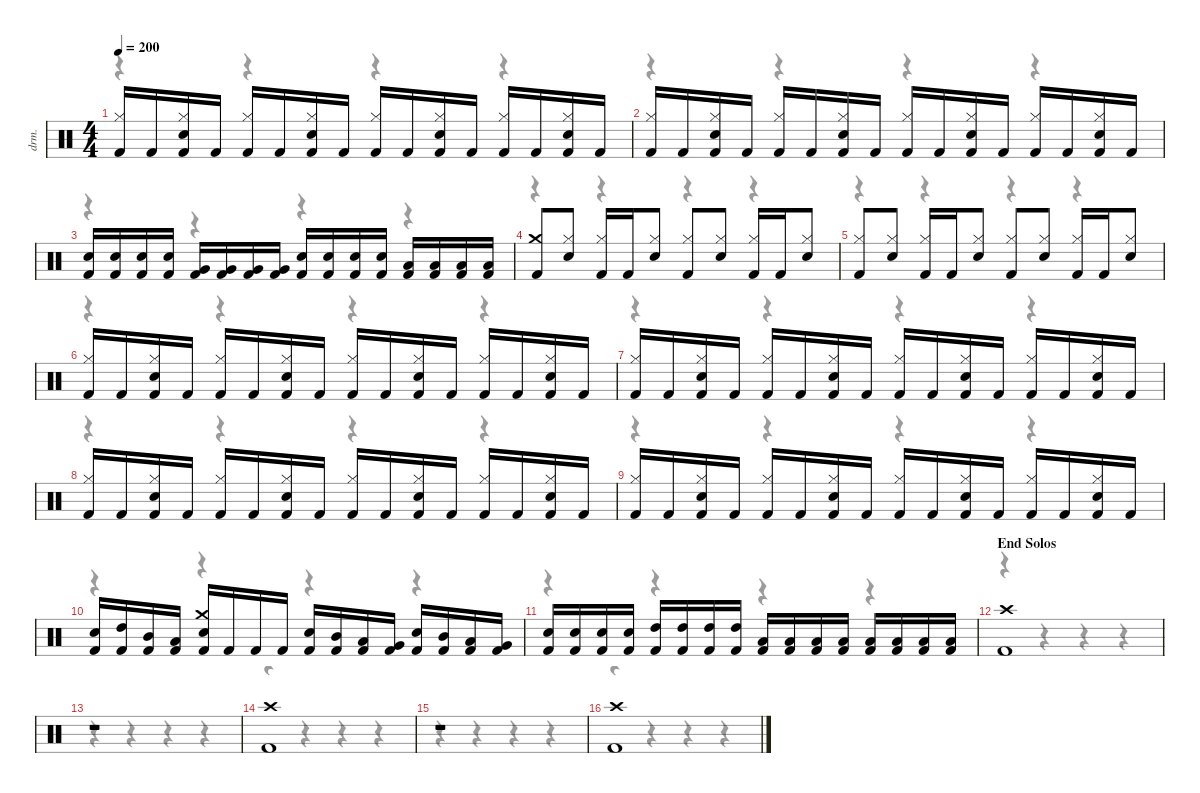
\hideDynamics
\bracketExtendMode nobrackets
\otherSystemsTrackNameOrientation horizontal
\track ("Drums" "drm.") {instrument percussion}
\staff {score}
\articulation defaults
\voice
\ts (4 4)
\scale
1.06434
\tempo 200
\accidentals auto
\clef neutral
\ottava regular
\simile none
\ks c
("Kick (hit) 2" "Hi-Hat (closed)").16{dy f} "Kick (hit) 2".16 ("Kick (hit) 2" "Snare (hit) 2" "Hi-Hat (closed)").16 "Kick (hit) 2".16 ("Kick (hit) 2" "Hi-Hat (closed)").16 "Kick (hit) 2".16 ("Kick (hit) 2" "Snare (hit) 2" "Hi-Hat (closed)").16 "Kick (hit) 2".16 ("Kick (hit) 2" "Hi-Hat (closed)").16 "Kick (hit) 2".16 ("Kick (hit) 2" "Snare (hit) 2" "Hi-Hat (closed)").16 "Kick (hit) 2".16 ("Kick (hit) 2" "Hi-Hat (closed)").16 "Kick (hit) 2".16 ("Kick (hit) 2" "Snare (hit) 2" "Hi-Hat (closed)").16 "Kick (hit) 2".16 |
\scale
0.990536 ("Kick (hit) 2" "Hi-Hat (closed)").16 "Kick (hit) 2".16 ("Kick (hit) 2" "Snare (hit) 2" "Hi-Hat (closed)").16 "Kick (hit) 2".16 ("Kick (hit) 2" "Hi-Hat (closed)").16 "Kick (hit) 2".16 ("Kick (hit) 2" "Snare (hit) 2" "Hi-Hat (closed)").16 "Kick (hit) 2".16 ("Kick (hit) 2" "Hi-Hat (closed)").16 "Kick (hit) 2".16 ("Kick (hit) 2" "Snare (hit) 2" "Hi-Hat (closed)").16 "Kick (hit) 2".16 ("Kick (hit) 2" "Hi-Hat (closed)").16 "Kick (hit) 2".16 ("Kick (hit) 2" "Snare (hit) 2" "Hi-Hat (closed)").16 "Kick (hit) 2".16 |
\scale
0.988574 ("Kick (hit) 2" "Snare (hit) 2").16 ("Kick (hit) 2" "Snare (hit) 2").16 ("Kick (hit) 2" "Snare (hit) 2").16 ("Kick (hit) 2" "Snare (hit) 2").16 ("Kick (hit) 2" "Very Low Tom (hit)").16 ("Kick (hit) 2" "Very Low Tom (hit)").16 ("Kick (hit) 2" "Very Low Tom (hit)").16 ("Kick (hit) 2" "Very Low Tom (hit)").16 ("Kick (hit) 2" "Snare (hit) 2").16 ("Kick (hit) 2" "Snare (hit) 2").16 ("Kick (hit) 2" "Snare (hit) 2").16 ("Kick (hit) 2" "Snare (hit) 2").16 ("Kick (hit) 2" "Low Floor Tom (hit)").16 ("Kick (hit) 2" "Low Floor Tom (hit)").16 ("Kick (hit) 2" "Low Floor Tom (hit)").16 ("Kick (hit) 2" "Low Floor Tom (hit)").16 |
\section ("" "")
\scale
0.978277 ("Kick (hit) 2" "Crash medium (hit)").8 ("Snare (hit) 2" "Hi-Hat (closed)").8 ("Kick (hit) 2" "Hi-Hat (closed)").16 "Kick (hit) 2".16 ("Snare (hit) 2" "Hi-Hat (closed)").8 ("Kick (hit) 2" "Hi-Hat (closed)").8 ("Snare (hit) 2" "Hi-Hat (closed)").8 ("Kick (hit) 2" "Hi-Hat (closed)").16 "Kick (hit) 2".16 ("Snare (hit) 2" "Hi-Hat (closed)").8 |
\scale
0.978277 ("Kick (hit) 2" "Hi-Hat (closed)").8 ("Snare (hit) 2" "Hi-Hat (closed)").8 ("Kick (hit) 2" "Hi-Hat (closed)").16 "Kick (hit) 2".16 ("Snare (hit) 2" "Hi-Hat (closed)").8 ("Kick (hit) 2" "Hi-Hat (closed)").8 ("Snare (hit) 2" "Hi-Hat (closed)").8 ("Kick (hit) 2" "Hi-Hat (closed)").16 "Kick (hit) 2".16 ("Snare (hit) 2" "Hi-Hat (closed)").8 |
\scale
1.0664 ("Kick (hit) 2" "Hi-Hat (closed)").16 "Kick (hit) 2".16 ("Kick (hit) 2" "Snare (hit) 2" "Hi-Hat (closed)").16 "Kick (hit) 2".16 ("Kick (hit) 2" "Hi-Hat (closed)").16 "Kick (hit) 2".16 ("Kick (hit) 2" "Snare (hit) 2" "Hi-Hat (closed)").16 "Kick (hit) 2".16 ("Kick (hit) 2" "Hi-Hat (closed)").16 "Kick (hit) 2".16 ("Kick (hit) 2" "Snare (hit) 2" "Hi-Hat (closed)").16 "Kick (hit) 2".16 ("Kick (hit) 2" "Hi-Hat (closed)").16 "Kick (hit) 2".16 ("Kick (hit) 2" "Snare (hit) 2" "Hi-Hat (closed)").16 "Kick (hit) 2".16 |
\scale
0.980336 ("Kick (hit) 2" "Hi-Hat (closed)").16 "Kick (hit) 2".16 ("Kick (hit) 2" "Snare (hit) 2" "Hi-Hat (closed)").16 "Kick (hit) 2".16 ("Kick (hit) 2" "Hi-Hat (closed)").16 "Kick (hit) 2".16 ("Kick (hit) 2" "Snare (hit) 2" "Hi-Hat (closed)").16 "Kick (hit) 2".16 ("Kick (hit) 2" "Hi-Hat (closed)").16 "Kick (hit) 2".16 ("Kick (hit) 2" "Snare (hit) 2" "Hi-Hat (closed)").16 "Kick (hit) 2".16 ("Kick (hit) 2" "Hi-Hat (closed)").16 "Kick (hit) 2".16 ("Kick (hit) 2" "Snare (hit) 2" "Hi-Hat (closed)").16 "Kick (hit) 2".16 |
\scale
0.980336 ("Kick (hit) 2" "Hi-Hat (closed)").16 "Kick (hit) 2".16 ("Kick (hit) 2" "Snare (hit) 2" "Hi-Hat (closed)").16 "Kick (hit) 2".16 ("Kick (hit) 2" "Hi-Hat (closed)").16 "Kick (hit) 2".16 ("Kick (hit) 2" "Snare (hit) 2" "Hi-Hat (closed)").16 "Kick (hit) 2".16 ("Kick (hit) 2" "Hi-Hat (closed)").16 "Kick (hit) 2".16 ("Kick (hit) 2" "Snare (hit) 2" "Hi-Hat (closed)").16 "Kick (hit) 2".16 ("Kick (hit) 2" "Hi-Hat (closed)").16 "Kick (hit) 2".16 ("Kick (hit) 2" "Snare (hit) 2" "Hi-Hat (closed)").16 "Kick (hit) 2".16 |
\scale
0.980336 ("Kick (hit) 2" "Hi-Hat (closed)").16 "Kick (hit) 2".16 ("Kick (hit) 2" "Snare (hit) 2" "Hi-Hat (closed)").16 "Kick (hit) 2".16 ("Kick (hit) 2" "Hi-Hat (closed)").16 "Kick (hit) 2".16 ("Kick (hit) 2" "Snare (hit) 2" "Hi-Hat (closed)").16 "Kick (hit) 2".16 ("Kick (hit) 2" "Hi-Hat (closed)").16 "Kick (hit) 2".16 ("Kick (hit) 2" "Snare (hit) 2" "Hi-Hat (closed)").16 "Kick (hit) 2".16 ("Kick (hit) 2" "Hi-Hat (closed)").16 "Kick (hit) 2".16 ("Kick (hit) 2" "Snare (hit) 2" "Hi-Hat (closed)").16 "Kick (hit) 2".16 |
\scale
0.992595 ("Kick (hit) 2" "Snare (hit) 2").16 ("Kick (hit) 2" "High Tom (hit)").16 ("Kick (hit) 2" "Mid Tom (hit)").16 ("Kick (hit) 2" "Low Tom (hit)").16 ("Kick (hit) 2" "Snare (hit) 2" "Crash medium (hit)").16 "Kick (hit) 2".16 "Kick (hit) 2".16 "Kick (hit) 2".16 ("Kick (hit) 2" "Snare (hit) 2").16 ("Kick (hit) 2" "Mid Tom (hit)").16 ("Kick (hit) 2" "Low Tom (hit)").16 ("Kick (hit) 2" "Very Low Tom (hit)").16 ("Kick (hit) 2" "Snare (hit) 2").16 ("Kick (hit) 2" "Mid Tom (hit)").16 ("Kick (hit) 2" "Low Tom (hit)").16 ("Kick (hit) 2" "Very Low Tom (hit)").16 |
\scale
1.14191 ("Kick (hit) 2" "Snare (hit) 2").16 ("Kick (hit) 2" "Snare (hit) 2").16 ("Kick (hit) 2" "Snare (hit) 2").16 ("Kick (hit) 2" "Snare (hit) 2").16 ("Kick (hit) 2" "High Tom (hit)").16 ("Kick (hit) 2" "High Tom (hit)").16 ("Kick (hit) 2" "High Tom (hit)").16 ("Kick (hit) 2" "High Tom (hit)").16 ("Kick (hit) 2" "Low Tom (hit)").16 ("Kick (hit) 2" "Low Tom (hit)").16 ("Kick (hit) 2" "Low Tom (hit)").16 ("Kick (hit) 2" "Low Tom (hit)").16 ("Kick (hit) 2" "Low Floor Tom (hit)").16 ("Kick (hit) 2" "Low Floor Tom (hit)").16 ("Kick (hit) 2" "Low Floor Tom (hit)").16 ("Kick (hit) 2" "Low Floor Tom (hit)").16 |
\section ("" "End Solos")
\scale
0.990536 ("Kick (hit) 2" "Crash high (hit)").1 |
\scale
0.990536 r.1 |
\scale
0.968469 ("Kick (hit) 2" "Crash high (hit)").1 |
\scale
0.990536 r.1 |
\scale
0.968469 ("Kick (hit) 2" "Crash high (hit)").1
\voice
\clef neutral
\ottava regular
\simile none
\ks c
r.4{dy mf} r.4 r.4 r.4 |
r.4 r.4 r.4 r.4 |
r.4 r.4 r.4 r.4 |
r.4 r.4 r.4 r.4 |
r.4 r.4 r.4 r.4 |
r.4 r.4 r.4 r.4 |
r.4 r.4 r.4 r.4 |
r.4 r.4 r.4 r.4 |
r.4 r.4 r.4 r.4 |
r.4 r.4 r.4 r.4 |
r.4 r.4 r.4 r.4 |
r.4 r.4 r.4 r.4 |
r.4 r.4 r.4 r.4 |
r.4 r.4 r.4 r.4 |
r.4 r.4 r.4 r.4 |
r.4 r.4 r.4 r.4
